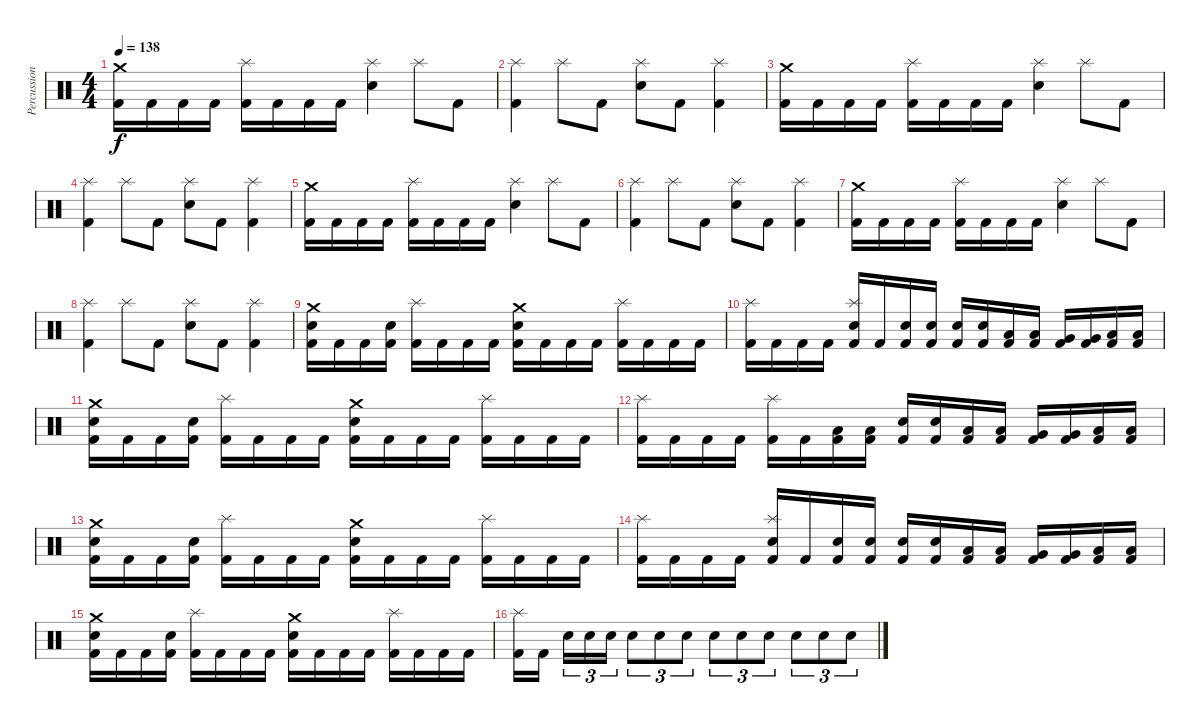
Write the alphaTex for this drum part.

\track ("Percussion" "Percussion") {instrument percussion}
\staff {score}
\articulation defaults
\ts (4 4)
\tempo 138
\clef neutral
\ks c
("Crash medium (hit)" "Kick (hit) 2").16{dy f} "Kick (hit) 2".16 "Kick (hit) 2".16 "Kick (hit) 2".16 ("Splash (hit)" "Kick (hit) 2").16 "Kick (hit) 2".16 "Kick (hit) 2".16 "Kick (hit) 2".16 ("Splash (hit)" "Snare (hit) 2").4 "Splash (hit)".8 "Kick (hit) 2".8 |
("Splash (hit)" "Kick (hit) 2").4 "Splash (hit)".8 "Kick (hit) 2".8 ("Splash (hit)" "Snare (hit) 2").8 "Kick (hit) 2".8 ("Splash (hit)" "Kick (hit) 2").4 |
("Crash medium (hit)" "Kick (hit) 2").16 "Kick (hit) 2".16 "Kick (hit) 2".16 "Kick (hit) 2".16 ("Splash (hit)" "Kick (hit) 2").16 "Kick (hit) 2".16 "Kick (hit) 2".16 "Kick (hit) 2".16 ("Splash (hit)" "Snare (hit) 2").4 "Splash (hit)".8 "Kick (hit) 2".8 |
("Splash (hit)" "Kick (hit) 2").4 "Splash (hit)".8 "Kick (hit) 2".8 ("Splash (hit)" "Snare (hit) 2").8 "Kick (hit) 2".8 ("Splash (hit)" "Kick (hit) 2").4 |
("Crash medium (hit)" "Kick (hit) 2").16 "Kick (hit) 2".16 "Kick (hit) 2".16 "Kick (hit) 2".16 ("Splash (hit)" "Kick (hit) 2").16 "Kick (hit) 2".16 "Kick (hit) 2".16 "Kick (hit) 2".16 ("Splash (hit)" "Snare (hit) 2").4 "Splash (hit)".8 "Kick (hit) 2".8 |
("Splash (hit)" "Kick (hit) 2").4 "Splash (hit)".8 "Kick (hit) 2".8 ("Splash (hit)" "Snare (hit) 2").8 "Kick (hit) 2".8 ("Splash (hit)" "Kick (hit) 2").4 |
("Crash medium (hit)" "Kick (hit) 2").16 "Kick (hit) 2".16 "Kick (hit) 2".16 "Kick (hit) 2".16 ("Splash (hit)" "Kick (hit) 2").16 "Kick (hit) 2".16 "Kick (hit) 2".16 "Kick (hit) 2".16 ("Splash (hit)" "Snare (hit) 2").4 "Splash (hit)".8 "Kick (hit) 2".8 |
("Splash (hit)" "Kick (hit) 2").4 "Splash (hit)".8 "Kick (hit) 2".8 ("Splash (hit)" "Snare (hit) 2").8 "Kick (hit) 2".8 ("Splash (hit)" "Kick (hit) 2").4 |
("Crash medium (hit)" "Snare (hit) 2" "Kick (hit) 2").16 "Kick (hit) 2".16 "Kick (hit) 2".16 ("Snare (hit) 2" "Kick (hit) 2").16 ("Splash (hit)" "Kick (hit) 2").16 "Kick (hit) 2".16 "Kick (hit) 2".16 "Kick (hit) 2".16 ("Crash medium (hit)" "Snare (hit) 2" "Kick (hit) 2").16 "Kick (hit) 2".16 "Kick (hit) 2".16 "Kick (hit) 2".16 ("Splash (hit)" "Kick (hit) 2").16 "Kick (hit) 2".16 "Kick (hit) 2".16 "Kick (hit) 2".16 |
("Splash (hit)" "Kick (hit) 2").16 "Kick (hit) 2".16 "Kick (hit) 2".16 "Kick (hit) 2".16 ("Splash (hit)" "Snare (hit) 2" "Kick (hit) 2").16 "Kick (hit) 2".16 ("Snare (hit) 2" "Kick (hit) 2").16 ("Snare (hit) 2" "Kick (hit) 2").16 ("Snare (hit) 2" "Kick (hit) 2").16 ("Snare (hit) 2" "Kick (hit) 2").16 ("Low Floor Tom (hit)" "Kick (hit) 2").16 ("Low Tom (hit)" "Kick (hit) 2").16 ("Very Low Tom (hit)" "Kick (hit) 2").16 ("Very Low Tom (hit)" "Kick (hit) 2").16 ("Low Floor Tom (hit)" "Kick (hit) 2").16 ("Low Floor Tom (hit)" "Kick (hit) 2").16 |
("Crash medium (hit)" "Snare (hit) 2" "Kick (hit) 2").16 "Kick (hit) 2".16 "Kick (hit) 2".16 ("Snare (hit) 2" "Kick (hit) 2").16 ("Splash (hit)" "Kick (hit) 2").16 "Kick (hit) 2".16 "Kick (hit) 2".16 "Kick (hit) 2".16 ("Crash medium (hit)" "Snare (hit) 2" "Kick (hit) 2").16 "Kick (hit) 2".16 "Kick (hit) 2".16 "Kick (hit) 2".16 ("Splash (hit)" "Kick (hit) 2").16 "Kick (hit) 2".16 "Kick (hit) 2".16 "Kick (hit) 2".16 |
("Splash (hit)" "Kick (hit) 2").16 "Kick (hit) 2".16 "Kick (hit) 2".16 "Kick (hit) 2".16 ("Splash (hit)" "Kick (hit) 2").16 "Kick (hit) 2".16 ("Low Tom (hit)" "Kick (hit) 2").16 ("Low Tom (hit)" "Kick (hit) 2").16 ("Snare (hit) 2" "Kick (hit) 2").16 ("Snare (hit) 2" "Kick (hit) 2").16 ("Low Tom (hit)" "Kick (hit) 2").16 ("Low Tom (hit)" "Kick (hit) 2").16 ("Very Low Tom (hit)" "Kick (hit) 2").16 ("Very Low Tom (hit)" "Kick (hit) 2").16 ("Low Floor Tom (hit)" "Kick (hit) 2").16 ("Low Floor Tom (hit)" "Kick (hit) 2").16 |
("Crash medium (hit)" "Snare (hit) 2" "Kick (hit) 2").16 "Kick (hit) 2".16 "Kick (hit) 2".16 ("Snare (hit) 2" "Kick (hit) 2").16 ("Splash (hit)" "Kick (hit) 2").16 "Kick (hit) 2".16 "Kick (hit) 2".16 "Kick (hit) 2".16 ("Crash medium (hit)" "Snare (hit) 2" "Kick (hit) 2").16 "Kick (hit) 2".16 "Kick (hit) 2".16 "Kick (hit) 2".16 ("Splash (hit)" "Kick (hit) 2").16 "Kick (hit) 2".16 "Kick (hit) 2".16 "Kick (hit) 2".16 |
("Splash (hit)" "Kick (hit) 2").16 "Kick (hit) 2".16 "Kick (hit) 2".16 "Kick (hit) 2".16 ("Splash (hit)" "Snare (hit) 2" "Kick (hit) 2").16 "Kick (hit) 2".16 ("Snare (hit) 2" "Kick (hit) 2").16 ("Snare (hit) 2" "Kick (hit) 2").16 ("Snare (hit) 2" "Kick (hit) 2").16 ("Snare (hit) 2" "Kick (hit) 2").16 ("Low Floor Tom (hit)" "Kick (hit) 2").16 ("Low Tom (hit)" "Kick (hit) 2").16 ("Very Low Tom (hit)" "Kick (hit) 2").16 ("Very Low Tom (hit)" "Kick (hit) 2").16 ("Low Floor Tom (hit)" "Kick (hit) 2").16 ("Low Floor Tom (hit)" "Kick (hit) 2").16 |
("Crash medium (hit)" "Snare (hit) 2" "Kick (hit) 2").16 "Kick (hit) 2".16 "Kick (hit) 2".16 ("Snare (hit) 2" "Kick (hit) 2").16 ("Splash (hit)" "Kick (hit) 2").16 "Kick (hit) 2".16 "Kick (hit) 2".16 "Kick (hit) 2".16 ("Crash medium (hit)" "Snare (hit) 2" "Kick (hit) 2").16 "Kick (hit) 2".16 "Kick (hit) 2".16 "Kick (hit) 2".16 ("Splash (hit)" "Kick (hit) 2").16 "Kick (hit) 2".16 "Kick (hit) 2".16 "Kick (hit) 2".16 |
("Splash (hit)" "Kick (hit) 2").16 "Kick (hit) 2".16{beam splitsecondary} "Snare (hit) 2".16{tu (3 2)} "Snare (hit) 2".16{tu (3 2)} "Snare (hit) 2".16{tu (3 2)} "Snare (hit) 2".8{tu (3 2)} "Snare (hit) 2".8{tu (3 2)} "Snare (hit) 2".8{tu (3 2)} "Snare (hit) 2".8{tu (3 2)} "Snare (hit) 2".8{tu (3 2)} "Snare (hit) 2".8{tu (3 2)} "Snare (hit) 2".8{tu (3 2)} "Snare (hit) 2".8{tu (3 2)} "Snare (hit) 2".8{tu (3 2)}
